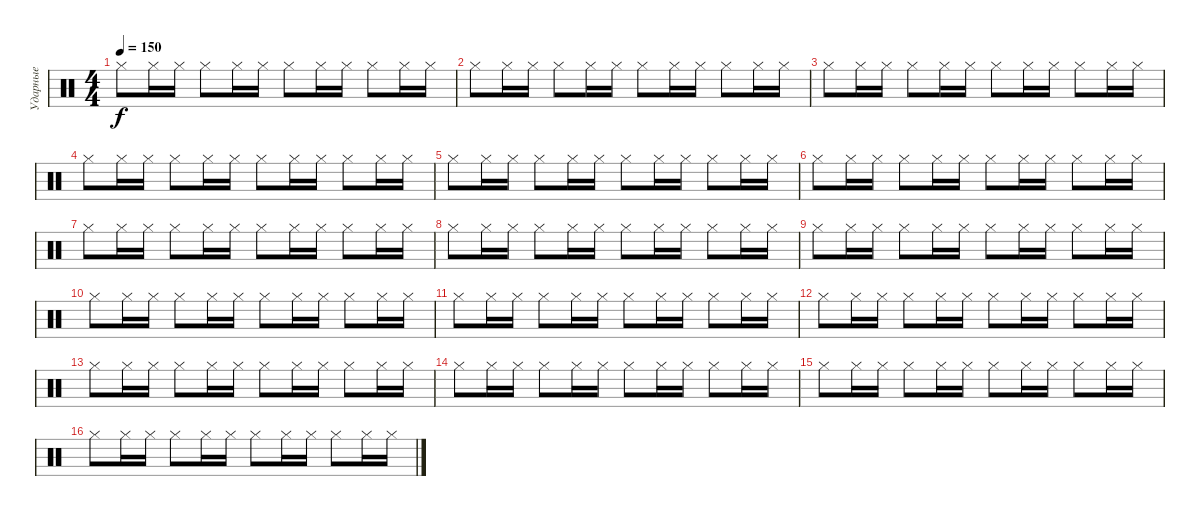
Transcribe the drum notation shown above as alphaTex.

\track ("Ударные" "Ударные") {instrument percussion}
\staff {score}
\articulation defaults
\ts (4 4)
\tempo 150
\clef neutral
\ks c "Hi-Hat (closed)".8{dy f} "Hi-Hat (closed)".16 "Hi-Hat (closed)".16 "Hi-Hat (closed)".8 "Hi-Hat (closed)".16 "Hi-Hat (closed)".16 "Hi-Hat (closed)".8 "Hi-Hat (closed)".16 "Hi-Hat (closed)".16 "Hi-Hat (closed)".8 "Hi-Hat (closed)".16 "Hi-Hat (closed)".16
|
"Hi-Hat (closed)".8 "Hi-Hat (closed)".16 "Hi-Hat (closed)".16 "Hi-Hat (closed)".8 "Hi-Hat (closed)".16 "Hi-Hat (closed)".16 "Hi-Hat (closed)".8 "Hi-Hat (closed)".16 "Hi-Hat (closed)".16 "Hi-Hat (closed)".8 "Hi-Hat (closed)".16 "Hi-Hat (closed)".16 |
"Hi-Hat (closed)".8 "Hi-Hat (closed)".16 "Hi-Hat (closed)".16 "Hi-Hat (closed)".8 "Hi-Hat (closed)".16 "Hi-Hat (closed)".16 "Hi-Hat (closed)".8 "Hi-Hat (closed)".16 "Hi-Hat (closed)".16 "Hi-Hat (closed)".8 "Hi-Hat (closed)".16 "Hi-Hat (closed)".16 |
"Hi-Hat (closed)".8 "Hi-Hat (closed)".16 "Hi-Hat (closed)".16 "Hi-Hat (closed)".8 "Hi-Hat (closed)".16 "Hi-Hat (closed)".16 "Hi-Hat (closed)".8 "Hi-Hat (closed)".16 "Hi-Hat (closed)".16 "Hi-Hat (closed)".8 "Hi-Hat (closed)".16 "Hi-Hat (closed)".16 |
"Hi-Hat (closed)".8 "Hi-Hat (closed)".16 "Hi-Hat (closed)".16 "Hi-Hat (closed)".8 "Hi-Hat (closed)".16 "Hi-Hat (closed)".16 "Hi-Hat (closed)".8 "Hi-Hat (closed)".16 "Hi-Hat (closed)".16 "Hi-Hat (closed)".8 "Hi-Hat (closed)".16 "Hi-Hat (closed)".16 |
"Hi-Hat (closed)".8 "Hi-Hat (closed)".16 "Hi-Hat (closed)".16 "Hi-Hat (closed)".8 "Hi-Hat (closed)".16 "Hi-Hat (closed)".16 "Hi-Hat (closed)".8 "Hi-Hat (closed)".16 "Hi-Hat (closed)".16 "Hi-Hat (closed)".8 "Hi-Hat (closed)".16 "Hi-Hat (closed)".16 |
"Hi-Hat (closed)".8 "Hi-Hat (closed)".16 "Hi-Hat (closed)".16 "Hi-Hat (closed)".8 "Hi-Hat (closed)".16 "Hi-Hat (closed)".16 "Hi-Hat (closed)".8 "Hi-Hat (closed)".16 "Hi-Hat (closed)".16 "Hi-Hat (closed)".8 "Hi-Hat (closed)".16 "Hi-Hat (closed)".16 |
"Hi-Hat (closed)".8 "Hi-Hat (closed)".16 "Hi-Hat (closed)".16 "Hi-Hat (closed)".8 "Hi-Hat (closed)".16 "Hi-Hat (closed)".16 "Hi-Hat (closed)".8 "Hi-Hat (closed)".16 "Hi-Hat (closed)".16 "Hi-Hat (closed)".8 "Hi-Hat (closed)".16 "Hi-Hat (closed)".16 |
"Hi-Hat (closed)".8 "Hi-Hat (closed)".16 "Hi-Hat (closed)".16 "Hi-Hat (closed)".8 "Hi-Hat (closed)".16 "Hi-Hat (closed)".16 "Hi-Hat (closed)".8 "Hi-Hat (closed)".16 "Hi-Hat (closed)".16 "Hi-Hat (closed)".8 "Hi-Hat (closed)".16 "Hi-Hat (closed)".16 |
"Hi-Hat (closed)".8 "Hi-Hat (closed)".16 "Hi-Hat (closed)".16 "Hi-Hat (closed)".8 "Hi-Hat (closed)".16 "Hi-Hat (closed)".16 "Hi-Hat (closed)".8 "Hi-Hat (closed)".16 "Hi-Hat (closed)".16 "Hi-Hat (closed)".8 "Hi-Hat (closed)".16 "Hi-Hat (closed)".16 |
"Hi-Hat (closed)".8 "Hi-Hat (closed)".16 "Hi-Hat (closed)".16 "Hi-Hat (closed)".8 "Hi-Hat (closed)".16 "Hi-Hat (closed)".16 "Hi-Hat (closed)".8 "Hi-Hat (closed)".16 "Hi-Hat (closed)".16 "Hi-Hat (closed)".8 "Hi-Hat (closed)".16 "Hi-Hat (closed)".16 |
"Hi-Hat (closed)".8 "Hi-Hat (closed)".16 "Hi-Hat (closed)".16 "Hi-Hat (closed)".8 "Hi-Hat (closed)".16 "Hi-Hat (closed)".16 "Hi-Hat (closed)".8 "Hi-Hat (closed)".16 "Hi-Hat (closed)".16 "Hi-Hat (closed)".8 "Hi-Hat (closed)".16 "Hi-Hat (closed)".16 |
"Hi-Hat (closed)".8 "Hi-Hat (closed)".16 "Hi-Hat (closed)".16 "Hi-Hat (closed)".8 "Hi-Hat (closed)".16 "Hi-Hat (closed)".16 "Hi-Hat (closed)".8 "Hi-Hat (closed)".16 "Hi-Hat (closed)".16 "Hi-Hat (closed)".8 "Hi-Hat (closed)".16 "Hi-Hat (closed)".16 |
"Hi-Hat (closed)".8 "Hi-Hat (closed)".16 "Hi-Hat (closed)".16 "Hi-Hat (closed)".8 "Hi-Hat (closed)".16 "Hi-Hat (closed)".16 "Hi-Hat (closed)".8 "Hi-Hat (closed)".16 "Hi-Hat (closed)".16 "Hi-Hat (closed)".8 "Hi-Hat (closed)".16 "Hi-Hat (closed)".16 |
"Hi-Hat (closed)".8 "Hi-Hat (closed)".16 "Hi-Hat (closed)".16 "Hi-Hat (closed)".8 "Hi-Hat (closed)".16 "Hi-Hat (closed)".16 "Hi-Hat (closed)".8 "Hi-Hat (closed)".16 "Hi-Hat (closed)".16 "Hi-Hat (closed)".8 "Hi-Hat (closed)".16 "Hi-Hat (closed)".16 |
"Hi-Hat (closed)".8 "Hi-Hat (closed)".16 "Hi-Hat (closed)".16 "Hi-Hat (closed)".8 "Hi-Hat (closed)".16 "Hi-Hat (closed)".16 "Hi-Hat (closed)".8 "Hi-Hat (closed)".16 "Hi-Hat (closed)".16 "Hi-Hat (closed)".8 "Hi-Hat (closed)".16 "Hi-Hat (closed)".16
